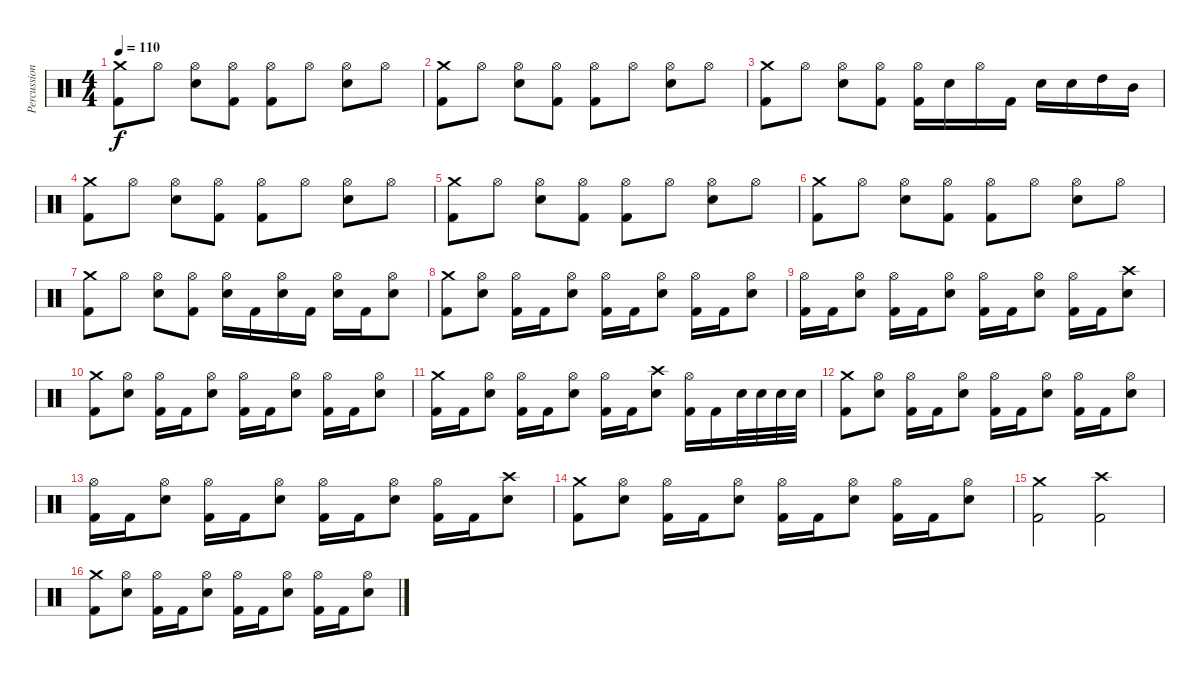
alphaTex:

\track ("Percussion" "Percussion") {instrument percussion}
\staff {score}
\articulation defaults
\ts (4 4)
\tempo 110
\clef neutral
\ks c
("Crash medium (hit)" "Kick (hit) 2").8{dy f} "Hi-Hat (open)".8 ("Hi-Hat (open)" "Snare (hit) 2").8 ("Hi-Hat (open)" "Kick (hit) 2").8 ("Hi-Hat (open)" "Kick (hit) 2").8 "Hi-Hat (open)".8 ("Hi-Hat (open)" "Snare (hit) 2").8 "Hi-Hat (open)".8 |
("Crash medium (hit)" "Kick (hit) 2").8 "Hi-Hat (open)".8 ("Hi-Hat (open)" "Snare (hit) 2").8 ("Hi-Hat (open)" "Kick (hit) 2").8 ("Hi-Hat (open)" "Kick (hit) 2").8 "Hi-Hat (open)".8 ("Hi-Hat (open)" "Snare (hit) 2").8 "Hi-Hat (open)".8 |
("Crash medium (hit)" "Kick (hit) 2").8 "Hi-Hat (open)".8 ("Hi-Hat (open)" "Snare (hit) 2").8 ("Hi-Hat (open)" "Kick (hit) 2").8 ("Hi-Hat (open)" "Kick (hit) 2").16 "Snare (hit) 2".16 "Hi-Hat (open)".16 "Kick (hit) 2".16 "Snare (hit) 2".16 "Snare (hit) 2".16 "High Tom (hit)".16 "Mid Tom (hit)".16 |
("Crash medium (hit)" "Kick (hit) 2").8 "Hi-Hat (open)".8 ("Hi-Hat (open)" "Snare (hit) 2").8 ("Hi-Hat (open)" "Kick (hit) 2").8 ("Hi-Hat (open)" "Kick (hit) 2").8 "Hi-Hat (open)".8 ("Hi-Hat (open)" "Snare (hit) 2").8 "Hi-Hat (open)".8 |
("Crash medium (hit)" "Kick (hit) 2").8 "Hi-Hat (open)".8 ("Hi-Hat (open)" "Snare (hit) 2").8 ("Hi-Hat (open)" "Kick (hit) 2").8 ("Hi-Hat (open)" "Kick (hit) 2").8 "Hi-Hat (open)".8 ("Hi-Hat (open)" "Snare (hit) 2").8 "Hi-Hat (open)".8 |
("Crash medium (hit)" "Kick (hit) 2").8 "Hi-Hat (open)".8 ("Hi-Hat (open)" "Snare (hit) 2").8 ("Hi-Hat (open)" "Kick (hit) 2").8 ("Hi-Hat (open)" "Kick (hit) 2").8 "Hi-Hat (open)".8 ("Hi-Hat (open)" "Snare (hit) 2").8 "Hi-Hat (open)".8 |
("Crash medium (hit)" "Kick (hit) 2").8 "Hi-Hat (open)".8 ("Hi-Hat (open)" "Snare (hit) 2").8 ("Hi-Hat (open)" "Kick (hit) 2").8 ("Hi-Hat (open)" "Snare (hit) 2").16 "Kick (hit) 2".16 ("Hi-Hat (open)" "Snare (hit) 2").16 "Kick (hit) 2".16 ("Hi-Hat (open)" "Snare (hit) 2").16 "Kick (hit) 2".16 ("Hi-Hat (open)" "Snare (hit) 2").8 |
("Crash medium (hit)" "Kick (hit) 2").8 ("Hi-Hat (open)" "Snare (hit) 2").8 ("Hi-Hat (open)" "Kick (hit) 2").16 "Kick (hit) 2".16 ("Hi-Hat (open)" "Snare (hit) 2").8 ("Hi-Hat (open)" "Kick (hit) 2").16 "Kick (hit) 2".16 ("Hi-Hat (open)" "Snare (hit) 2").8 ("Hi-Hat (open)" "Kick (hit) 2").16 "Kick (hit) 2".16 ("Hi-Hat (open)" "Snare (hit) 2").8 |
("Hi-Hat (open)" "Kick (hit) 2").16 "Kick (hit) 2".16 ("Hi-Hat (open)" "Snare (hit) 2").8 ("Hi-Hat (open)" "Kick (hit) 2").16 "Kick (hit) 2".16 ("Hi-Hat (open)" "Snare (hit) 2").8 ("Hi-Hat (open)" "Kick (hit) 2").16 "Kick (hit) 2".16 ("Hi-Hat (open)" "Snare (hit) 2").8 ("Hi-Hat (open)" "Kick (hit) 2").16 "Kick (hit) 2".16 ("Crash high (hit)" "Snare (hit) 2").8 |
("Crash medium (hit)" "Kick (hit) 2").8 ("Hi-Hat (open)" "Snare (hit) 2").8 ("Hi-Hat (open)" "Kick (hit) 2").16 "Kick (hit) 2".16 ("Hi-Hat (open)" "Snare (hit) 2").8 ("Hi-Hat (open)" "Kick (hit) 2").16 "Kick (hit) 2".16 ("Hi-Hat (open)" "Snare (hit) 2").8 ("Hi-Hat (open)" "Kick (hit) 2").16 "Kick (hit) 2".16 ("Hi-Hat (open)" "Snare (hit) 2").8 |
("Crash medium (hit)" "Kick (hit) 2").16 "Kick (hit) 2".16 ("Hi-Hat (open)" "Snare (hit) 2").8 ("Hi-Hat (open)" "Kick (hit) 2").16 "Kick (hit) 2".16 ("Hi-Hat (open)" "Snare (hit) 2").8 ("Hi-Hat (open)" "Kick (hit) 2").16 "Kick (hit) 2".16 ("Crash high (hit)" "Snare (hit) 2").8 ("Hi-Hat (open)" "Kick (hit) 2").16 "Kick (hit) 2".16 "Snare (hit) 2".32 "Snare (hit) 2".32 "Snare (hit) 2".32 "Snare (hit) 2".32 |
("Crash medium (hit)" "Kick (hit) 2").8 ("Hi-Hat (open)" "Snare (hit) 2").8 ("Hi-Hat (open)" "Kick (hit) 2").16 "Kick (hit) 2".16 ("Hi-Hat (open)" "Snare (hit) 2").8 ("Hi-Hat (open)" "Kick (hit) 2").16 "Kick (hit) 2".16 ("Hi-Hat (open)" "Snare (hit) 2").8 ("Hi-Hat (open)" "Kick (hit) 2").16 "Kick (hit) 2".16 ("Hi-Hat (open)" "Snare (hit) 2").8 |
("Hi-Hat (open)" "Kick (hit) 2").16 "Kick (hit) 2".16 ("Hi-Hat (open)" "Snare (hit) 2").8 ("Hi-Hat (open)" "Kick (hit) 2").16 "Kick (hit) 2".16 ("Hi-Hat (open)" "Snare (hit) 2").8 ("Hi-Hat (open)" "Kick (hit) 2").16 "Kick (hit) 2".16 ("Hi-Hat (open)" "Snare (hit) 2").8 ("Hi-Hat (open)" "Kick (hit) 2").16 "Kick (hit) 2".16 ("Crash high (hit)" "Snare (hit) 2").8 |
("Crash medium (hit)" "Kick (hit) 2").8 ("Hi-Hat (open)" "Snare (hit) 2").8 ("Hi-Hat (open)" "Kick (hit) 2").16 "Kick (hit) 2".16 ("Hi-Hat (open)" "Snare (hit) 2").8 ("Hi-Hat (open)" "Kick (hit) 2").16 "Kick (hit) 2".16 ("Hi-Hat (open)" "Snare (hit) 2").8 ("Hi-Hat (open)" "Kick (hit) 2").16 "Kick (hit) 2".16 ("Hi-Hat (open)" "Snare (hit) 2").8 |
("Crash medium (hit)" "Kick (hit) 2").2 ("Crash high (hit)" "Kick (hit) 2").2 |
("Crash medium (hit)" "Kick (hit) 2").8 ("Hi-Hat (open)" "Snare (hit) 2").8 ("Hi-Hat (open)" "Kick (hit) 2").16 "Kick (hit) 2".16 ("Hi-Hat (open)" "Snare (hit) 2").8 ("Hi-Hat (open)" "Kick (hit) 2").16 "Kick (hit) 2".16 ("Hi-Hat (open)" "Snare (hit) 2").8 ("Hi-Hat (open)" "Kick (hit) 2").16 "Kick (hit) 2".16 ("Hi-Hat (open)" "Snare (hit) 2").8
